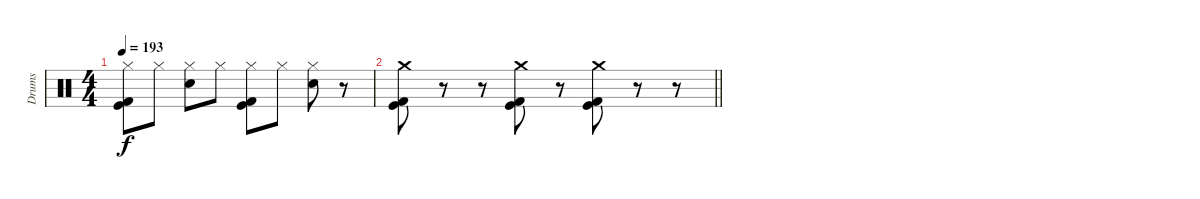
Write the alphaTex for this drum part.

\track ("Drums" "Drums") {instrument percussion}
\staff
\articulation defaults
\ts (4 4)
\tempo 193
\clef neutral
\ks c
("Hi-Hat (closed)" "Kick (hit)" "Kick (hit) 2").8{dy f} "Hi-Hat (closed)".8 ("Hi-Hat (closed)" "Snare (hit) 2").8 "Hi-Hat (closed)".8 ("Hi-Hat (closed)" "Kick (hit)" "Kick (hit) 2").8 "Hi-Hat (closed)".8 ("Hi-Hat (closed)" "Snare (hit) 2").8 r.8 |
\barLineRight lightlight
("Crash medium (hit)" "Kick (hit)" "Kick (hit) 2").8 r.8 r.8 ("Crash medium (hit)" "Kick (hit)" "Kick (hit) 2").8 r.8 ("Crash medium (hit)" "Kick (hit)" "Kick (hit) 2").8 r.8 r.8
